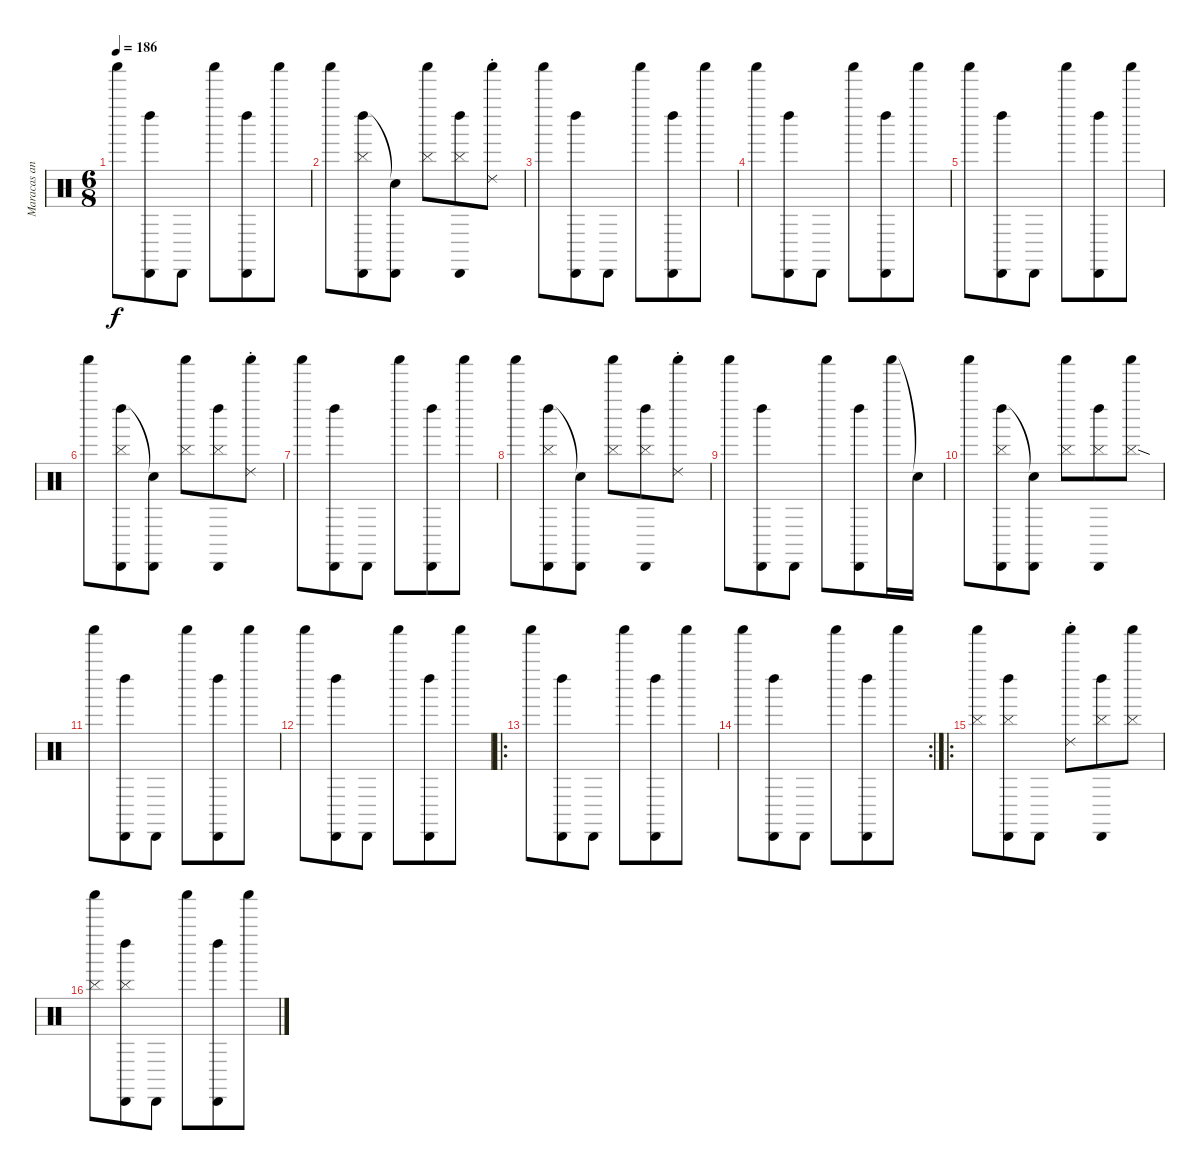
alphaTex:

\track ("Maracas and xtras" "Maracas an") {instrument percussion}
\staff {score}
\articulation defaults
\ts (6 8)
\tempo 186
\clef neutral
\ks c "Shaker (hit)".8{dy f}
("Left Maraca (hit)" "Cabasa (hit)").8 "Cabasa (hit)".8 "Shaker (hit)".8 ("Left Maraca (hit)" "Cabasa (hit)").8 "Shaker (hit)".8 |
"Shaker (hit)".8 ("Left Maraca (hit)" "Cymbal (hit)" "Cabasa (hit)").8 ("Snare (hit)"{t} "Cabasa (hit)").8 ("Shaker (hit)" "Cymbal (hit)").8 ("Left Maraca (hit)" "Cymbal (hit)" "Cabasa (hit)").8 ("Shaker (hit)" "Ride (choke) 2").8 |
"Shaker (hit)".8 ("Left Maraca (hit)" "Cabasa (hit)").8 "Cabasa (hit)".8 "Shaker (hit)".8 ("Left Maraca (hit)" "Cabasa (hit)").8 "Shaker (hit)".8 |
"Shaker (hit)".8 ("Left Maraca (hit)" "Cabasa (hit)").8 "Cabasa (hit)".8 "Shaker (hit)".8 ("Left Maraca (hit)" "Cabasa (hit)").8 "Shaker (hit)".8 |
"Shaker (hit)".8 ("Left Maraca (hit)" "Cabasa (hit)").8 "Cabasa (hit)".8 "Shaker (hit)".8 ("Left Maraca (hit)" "Cabasa (hit)").8 "Shaker (hit)".8 |
"Shaker (hit)".8 ("Left Maraca (hit)" "Cymbal (hit)" "Cabasa (hit)").8 ("Snare (hit)"{t} "Cabasa (hit)").8 ("Shaker (hit)" "Cymbal (hit)").8 ("Left Maraca (hit)" "Cymbal (hit)" "Cabasa (hit)").8 ("Shaker (hit)" "Ride (choke) 2").8 |
"Shaker (hit)".8 ("Left Maraca (hit)" "Cabasa (hit)").8 "Cabasa (hit)".8 "Shaker (hit)".8 ("Left Maraca (hit)" "Cabasa (hit)").8 "Shaker (hit)".8 |
"Shaker (hit)".8 ("Left Maraca (hit)" "Cymbal (hit)" "Cabasa (hit)").8 ("Snare (hit)"{t} "Cabasa (hit)").8 ("Shaker (hit)" "Cymbal (hit)").8 ("Left Maraca (hit)" "Cymbal (hit)" "Cabasa (hit)").8 ("Shaker (hit)" "Ride (choke) 2").8 |
"Shaker (hit)".8 ("Left Maraca (hit)" "Cabasa (hit)").8 "Cabasa (hit)".8 "Shaker (hit)".8 ("Left Maraca (hit)" "Cabasa (hit)").8 "Shaker (hit)".16 "Snare (hit)"{t}.16 |
"Shaker (hit)".8 ("Left Maraca (hit)" "Cymbal (hit)" "Cabasa (hit)").8 ("Snare (hit)"{t} "Cabasa (hit)").8 ("Shaker (hit)" "Cymbal (hit)").8 ("Left Maraca (hit)" "Cymbal (hit)" "Cabasa (hit)").8 ("Shaker (hit)" "Cymbal (hit)"{sod}).8 |
"Shaker (hit)".8 ("Left Maraca (hit)" "Cabasa (hit)").8 "Cabasa (hit)".8 "Shaker (hit)".8 ("Left Maraca (hit)" "Cabasa (hit)").8 "Shaker (hit)".8 |
"Shaker (hit)".8 ("Left Maraca (hit)" "Cabasa (hit)").8 "Cabasa (hit)".8 "Shaker (hit)".8 ("Left Maraca (hit)" "Cabasa (hit)").8 "Shaker (hit)".8 |
\ro "Shaker (hit)".8
("Left Maraca (hit)" "Cabasa (hit)").8 "Cabasa (hit)".8 "Shaker (hit)".8 ("Left Maraca (hit)" "Cabasa (hit)").8 "Shaker (hit)".8 |
\rc 2 "Shaker (hit)".8
("Left Maraca (hit)" "Cabasa (hit)").8 "Cabasa (hit)".8 "Shaker (hit)".8 ("Left Maraca (hit)" "Cabasa (hit)").8 "Shaker (hit)".8 |
\ro
("Shaker (hit)" "Cymbal (hit)").8 ("Left Maraca (hit)" "Cymbal (hit)" "Cabasa (hit)").8 "Cabasa (hit)".8 ("Shaker (hit)" "Ride (choke) 2").8 ("Left Maraca (hit)" "Cymbal (hit)" "Cabasa (hit)").8 ("Shaker (hit)" "Cymbal (hit)").8 |
("Shaker (hit)" "Cymbal (hit)").8 ("Left Maraca (hit)" "Cymbal (hit)" "Cabasa (hit)").8 "Cabasa (hit)".8 "Shaker (hit)".8 ("Left Maraca (hit)" "Cabasa (hit)").8 "Shaker (hit)".8
